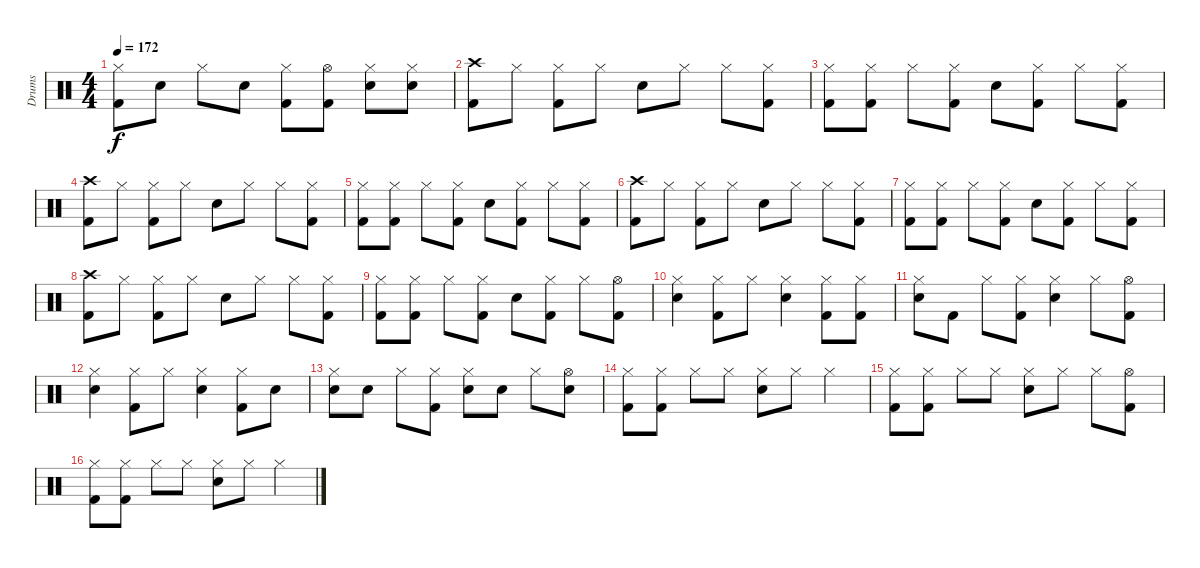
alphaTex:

\track ("Drums" "Drums") {instrument percussion}
\staff {score}
\articulation defaults
\ts (4 4)
\tempo 172
\clef neutral
\ks c
("Hi-Hat (closed)" "Kick (hit) 2").8{dy f} "Electric Snare (hit)".8 "Hi-Hat (closed)".8 "Electric Snare (hit)".8 ("Hi-Hat (closed)" "Kick (hit) 2").8 ("Hi-Hat (open)" "Kick (hit) 2").8 ("Hi-Hat (closed)" "Electric Snare (hit)").8 ("Hi-Hat (closed)" "Electric Snare (hit)").8 |
("Crash high (hit)" "Kick (hit) 2").8 "Hi-Hat (closed)".8 ("Hi-Hat (closed)" "Kick (hit) 2").8 "Hi-Hat (closed)".8 "Electric Snare (hit)".8 "Hi-Hat (closed)".8 "Hi-Hat (closed)".8 ("Hi-Hat (closed)" "Kick (hit) 2").8 |
("Hi-Hat (closed)" "Kick (hit) 2").8 ("Hi-Hat (closed)" "Kick (hit) 2").8 "Hi-Hat (closed)".8 ("Hi-Hat (closed)" "Kick (hit) 2").8 "Electric Snare (hit)".8 ("Hi-Hat (closed)" "Kick (hit) 2").8 "Hi-Hat (closed)".8 ("Hi-Hat (closed)" "Kick (hit) 2").8 |
("Crash high (hit)" "Kick (hit) 2").8 "Hi-Hat (closed)".8 ("Hi-Hat (closed)" "Kick (hit) 2").8 "Hi-Hat (closed)".8 "Electric Snare (hit)".8 "Hi-Hat (closed)".8 "Hi-Hat (closed)".8 ("Hi-Hat (closed)" "Kick (hit) 2").8 |
("Hi-Hat (closed)" "Kick (hit) 2").8 ("Hi-Hat (closed)" "Kick (hit) 2").8 "Hi-Hat (closed)".8 ("Hi-Hat (closed)" "Kick (hit) 2").8 "Electric Snare (hit)".8 ("Hi-Hat (closed)" "Kick (hit) 2").8 "Hi-Hat (closed)".8 ("Hi-Hat (closed)" "Kick (hit) 2").8 |
("Crash high (hit)" "Kick (hit) 2").8 "Hi-Hat (closed)".8 ("Hi-Hat (closed)" "Kick (hit) 2").8 "Hi-Hat (closed)".8 "Electric Snare (hit)".8 "Hi-Hat (closed)".8 "Hi-Hat (closed)".8 ("Hi-Hat (closed)" "Kick (hit) 2").8 |
("Hi-Hat (closed)" "Kick (hit) 2").8 ("Hi-Hat (closed)" "Kick (hit) 2").8 "Hi-Hat (closed)".8 ("Hi-Hat (closed)" "Kick (hit) 2").8 "Electric Snare (hit)".8 ("Hi-Hat (closed)" "Kick (hit) 2").8 "Hi-Hat (closed)".8 ("Hi-Hat (closed)" "Kick (hit) 2").8 |
("Crash high (hit)" "Kick (hit) 2").8 "Hi-Hat (closed)".8 ("Hi-Hat (closed)" "Kick (hit) 2").8 "Hi-Hat (closed)".8 "Electric Snare (hit)".8 "Hi-Hat (closed)".8 "Hi-Hat (closed)".8 ("Hi-Hat (closed)" "Kick (hit) 2").8 |
("Hi-Hat (closed)" "Kick (hit) 2").8 ("Hi-Hat (closed)" "Kick (hit) 2").8 "Hi-Hat (closed)".8 ("Hi-Hat (closed)" "Kick (hit) 2").8 "Electric Snare (hit)".8 ("Hi-Hat (closed)" "Kick (hit) 2").8 "Hi-Hat (closed)".8 ("Hi-Hat (open)" "Kick (hit) 2").8 |
("Hi-Hat (closed)" "Electric Snare (hit)").4 ("Hi-Hat (closed)" "Kick (hit) 2").8 "Hi-Hat (closed)".8 ("Hi-Hat (closed)" "Electric Snare (hit)").4 ("Hi-Hat (closed)" "Kick (hit) 2").8 ("Hi-Hat (closed)" "Kick (hit) 2").8 |
("Hi-Hat (closed)" "Electric Snare (hit)").8 "Kick (hit) 2".8 "Hi-Hat (closed)".8 ("Hi-Hat (closed)" "Kick (hit) 2").8 ("Hi-Hat (closed)" "Electric Snare (hit)").4 "Hi-Hat (closed)".8 ("Hi-Hat (open)" "Kick (hit) 2").8 |
("Hi-Hat (closed)" "Electric Snare (hit)").4 ("Hi-Hat (closed)" "Kick (hit) 2").8 "Hi-Hat (closed)".8 ("Hi-Hat (closed)" "Electric Snare (hit)").4 ("Hi-Hat (closed)" "Kick (hit) 2").8 "Electric Snare (hit)".8 |
("Hi-Hat (closed)" "Electric Snare (hit)").8 "Electric Snare (hit)".8 "Hi-Hat (closed)".8 ("Hi-Hat (closed)" "Kick (hit) 2").8 ("Hi-Hat (closed)" "Electric Snare (hit)").8 "Electric Snare (hit)".8 "Hi-Hat (closed)".8 ("Hi-Hat (open)" "Electric Snare (hit)").8 |
("Hi-Hat (closed)" "Kick (hit) 2").8 ("Hi-Hat (closed)" "Kick (hit) 2").8 "Hi-Hat (closed)".8 "Hi-Hat (closed)".8 ("Hi-Hat (closed)" "Electric Snare (hit)").8 "Hi-Hat (closed)".8 "Hi-Hat (closed)".4 |
("Hi-Hat (closed)" "Kick (hit) 2").8 ("Hi-Hat (closed)" "Kick (hit) 2").8 "Hi-Hat (closed)".8 "Hi-Hat (closed)".8 ("Hi-Hat (closed)" "Electric Snare (hit)").8 "Hi-Hat (closed)".8 "Hi-Hat (closed)".8 ("Hi-Hat (open)" "Kick (hit) 2").8 |
("Hi-Hat (closed)" "Kick (hit) 2").8 ("Hi-Hat (closed)" "Kick (hit) 2").8 "Hi-Hat (closed)".8 "Hi-Hat (closed)".8 ("Hi-Hat (closed)" "Electric Snare (hit)").8 "Hi-Hat (closed)".8 "Hi-Hat (closed)".4
